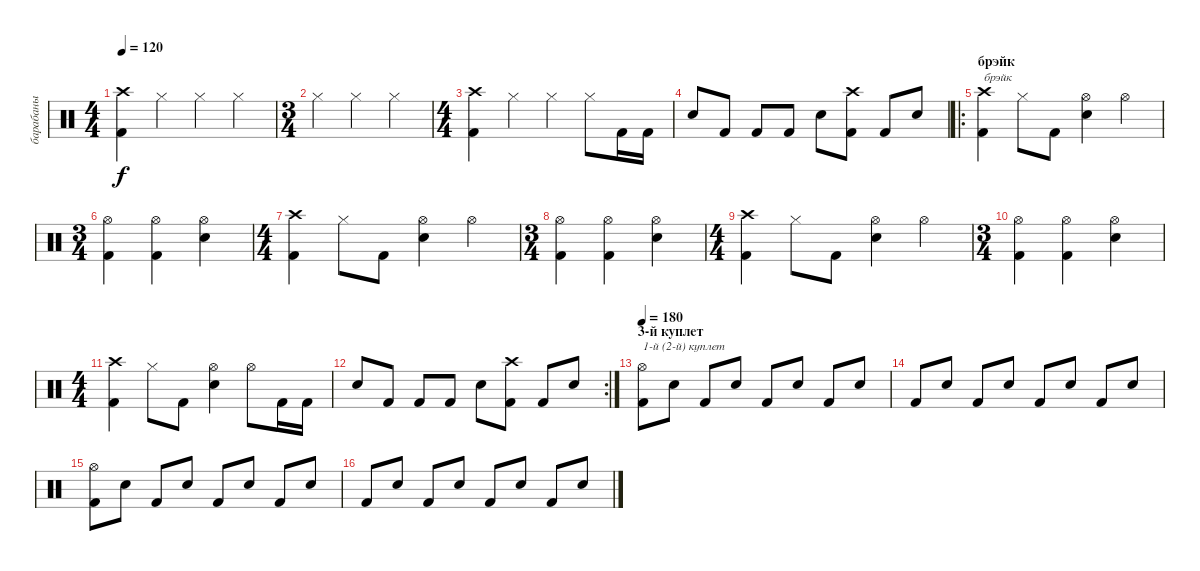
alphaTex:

\track ("барабаны" "барабаны") {instrument percussion}
\staff {score}
\articulation defaults
\ts (4 4)
\tempo 120
\clef neutral
\ks c
("Crash high (hit)" "Kick (hit) 2").4{dy f} "Hi-Hat (closed)".4 "Hi-Hat (closed)".4 "Hi-Hat (closed)".4 |
\ts (3 4)
"Hi-Hat (closed)".4 "Hi-Hat (closed)".4 "Hi-Hat (closed)".4 |
\ts (4 4)
("Crash high (hit)" "Kick (hit) 2").4 "Hi-Hat (closed)".4 "Hi-Hat (closed)".4 "Hi-Hat (closed)".8 "Kick (hit) 2".16 "Kick (hit) 2".16 |
"Snare (hit) 2".8 "Kick (hit) 2".8 "Kick (hit) 2".8 "Kick (hit) 2".8 "Snare (hit) 2".8 ("Crash high (hit)" "Kick (hit) 2").8 "Kick (hit) 2".8 "Snare (hit) 2".8 |
\ro
\section ("" "брэйк")
("Crash high (hit)" "Kick (hit) 2").4{txt "брэйк"} "Hi-Hat (closed)".8 "Kick (hit) 2".8 ("Hi-Hat (open)" "Snare (hit) 2").4 "Hi-Hat (open)".4 |
\ts (3 4)
("Hi-Hat (open)" "Kick (hit) 2").4 ("Hi-Hat (open)" "Kick (hit) 2").4 ("Hi-Hat (open)" "Snare (hit) 2").4 |
\ts (4 4)
("Crash high (hit)" "Kick (hit) 2").4 "Hi-Hat (closed)".8 "Kick (hit) 2".8 ("Hi-Hat (open)" "Snare (hit) 2").4 "Hi-Hat (open)".4 |
\ts (3 4)
("Hi-Hat (open)" "Kick (hit) 2").4 ("Hi-Hat (open)" "Kick (hit) 2").4 ("Hi-Hat (open)" "Snare (hit) 2").4 |
\ts (4 4)
("Crash high (hit)" "Kick (hit) 2").4 "Hi-Hat (closed)".8 "Kick (hit) 2".8 ("Hi-Hat (open)" "Snare (hit) 2").4 "Hi-Hat (open)".4 |
\ts (3 4)
("Hi-Hat (open)" "Kick (hit) 2").4 ("Hi-Hat (open)" "Kick (hit) 2").4 ("Hi-Hat (open)" "Snare (hit) 2").4 |
\ts (4 4)
("Crash high (hit)" "Kick (hit) 2").4 "Hi-Hat (closed)".8 "Kick (hit) 2".8 ("Hi-Hat (open)" "Snare (hit) 2").4 "Hi-Hat (open)".8 "Kick (hit) 2".16 "Kick (hit) 2".16 |
\rc 2 "Snare (hit) 2".8 "Kick (hit) 2".8 "Kick (hit) 2".8 "Kick (hit) 2".8 "Snare (hit) 2".8
("Crash high (hit)" "Kick (hit) 2").8 "Kick (hit) 2".8 "Snare (hit) 2".8 |
\section ("" "3-й куплет")
\tempo 180
("Hi-Hat (open)" "Kick (hit) 2").8{txt "1-й (2-й) куплет"} "Snare (hit) 2".8 "Kick (hit) 2".8 "Snare (hit) 2".8 "Kick (hit) 2".8 "Snare (hit) 2".8 "Kick (hit) 2".8 "Snare (hit) 2".8 |
"Kick (hit) 2".8 "Snare (hit) 2".8 "Kick (hit) 2".8 "Snare (hit) 2".8 "Kick (hit) 2".8 "Snare (hit) 2".8 "Kick (hit) 2".8 "Snare (hit) 2".8 |
("Hi-Hat (open)" "Kick (hit) 2").8 "Snare (hit) 2".8 "Kick (hit) 2".8 "Snare (hit) 2".8 "Kick (hit) 2".8 "Snare (hit) 2".8 "Kick (hit) 2".8 "Snare (hit) 2".8 |
"Kick (hit) 2".8 "Snare (hit) 2".8 "Kick (hit) 2".8 "Snare (hit) 2".8 "Kick (hit) 2".8 "Snare (hit) 2".8 "Kick (hit) 2".8 "Snare (hit) 2".8
